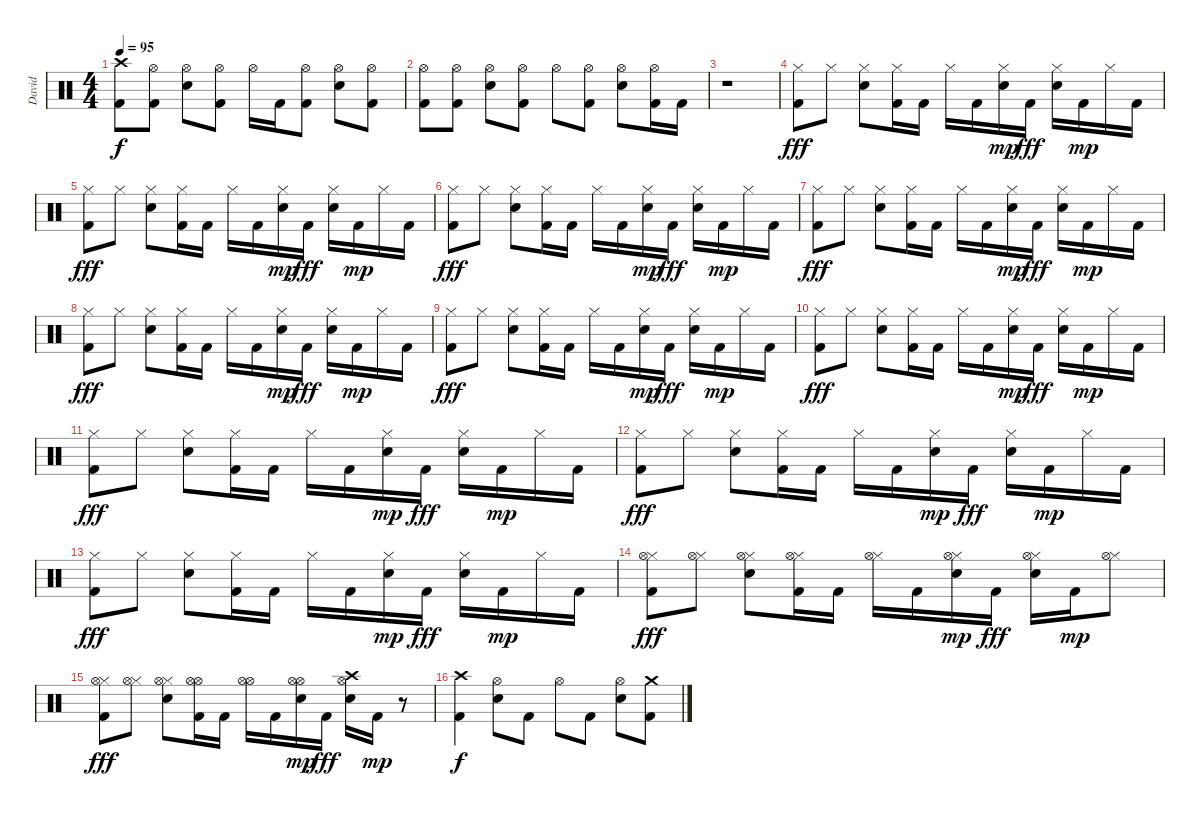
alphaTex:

\track ("David" "David") {instrument percussion}
\staff {score}
\articulation defaults
\ts (4 4)
\tempo 95
\clef neutral
\ks c
("Crash high (hit)" "Kick (hit) 2").8{dy f} ("Hi-Hat (open)" "Kick (hit) 2").8 ("Hi-Hat (open)" "Electric Snare (hit)").8 ("Hi-Hat (open)" "Kick (hit) 2").8 "Hi-Hat (open)".16 "Kick (hit) 2".16 ("Hi-Hat (open)" "Kick (hit) 2").8 ("Hi-Hat (open)" "Electric Snare (hit)").8 ("Hi-Hat (open)" "Kick (hit) 2").8 |
("Hi-Hat (open)" "Kick (hit) 2").8 ("Hi-Hat (open)" "Kick (hit) 2").8 ("Hi-Hat (open)" "Electric Snare (hit)").8 ("Hi-Hat (open)" "Kick (hit) 2").8 "Hi-Hat (open)".8 ("Hi-Hat (open)" "Kick (hit) 2").8 ("Hi-Hat (open)" "Electric Snare (hit)").8 ("Hi-Hat (open)" "Kick (hit) 2").16 "Kick (hit) 2".16 |
r.1 |
("Hi-Hat (closed)" "Kick (hit) 2").8{dy fff} "Hi-Hat (closed)".8 ("Hi-Hat (closed)" "Snare (hit) 2").8 ("Hi-Hat (closed)" "Kick (hit) 2").16 "Kick (hit) 2".16 "Hi-Hat (closed)".16 "Kick (hit) 2".16 ("Hi-Hat (closed)" "Snare (hit) 2").16{dy mp} "Kick (hit) 2".16{dy fff} ("Hi-Hat (closed)" "Snare (hit) 2").16 "Kick (hit) 2".16{dy mp} "Hi-Hat (closed)".16 "Kick (hit) 2".16 |
("Hi-Hat (closed)" "Kick (hit) 2").8{dy fff} "Hi-Hat (closed)".8 ("Hi-Hat (closed)" "Snare (hit) 2").8 ("Hi-Hat (closed)" "Kick (hit) 2").16 "Kick (hit) 2".16 "Hi-Hat (closed)".16 "Kick (hit) 2".16 ("Hi-Hat (closed)" "Snare (hit) 2").16{dy mp} "Kick (hit) 2".16{dy fff} ("Hi-Hat (closed)" "Snare (hit) 2").16 "Kick (hit) 2".16{dy mp} "Hi-Hat (closed)".16 "Kick (hit) 2".16 |
("Hi-Hat (closed)" "Kick (hit) 2").8{dy fff} "Hi-Hat (closed)".8 ("Hi-Hat (closed)" "Snare (hit) 2").8 ("Hi-Hat (closed)" "Kick (hit) 2").16 "Kick (hit) 2".16 "Hi-Hat (closed)".16 "Kick (hit) 2".16 ("Hi-Hat (closed)" "Snare (hit) 2").16{dy mp} "Kick (hit) 2".16{dy fff} ("Hi-Hat (closed)" "Snare (hit) 2").16 "Kick (hit) 2".16{dy mp} "Hi-Hat (closed)".16 "Kick (hit) 2".16 |
("Hi-Hat (closed)" "Kick (hit) 2").8{dy fff} "Hi-Hat (closed)".8 ("Hi-Hat (closed)" "Snare (hit) 2").8 ("Hi-Hat (closed)" "Kick (hit) 2").16 "Kick (hit) 2".16 "Hi-Hat (closed)".16 "Kick (hit) 2".16 ("Hi-Hat (closed)" "Snare (hit) 2").16{dy mp} "Kick (hit) 2".16{dy fff} ("Hi-Hat (closed)" "Snare (hit) 2").16 "Kick (hit) 2".16{dy mp} "Hi-Hat (closed)".16 "Kick (hit) 2".16 |
("Hi-Hat (closed)" "Kick (hit) 2").8{dy fff} "Hi-Hat (closed)".8 ("Hi-Hat (closed)" "Snare (hit) 2").8 ("Hi-Hat (closed)" "Kick (hit) 2").16 "Kick (hit) 2".16 "Hi-Hat (closed)".16 "Kick (hit) 2".16 ("Hi-Hat (closed)" "Snare (hit) 2").16{dy mp} "Kick (hit) 2".16{dy fff} ("Hi-Hat (closed)" "Snare (hit) 2").16 "Kick (hit) 2".16{dy mp} "Hi-Hat (closed)".16 "Kick (hit) 2".16 |
("Hi-Hat (closed)" "Kick (hit) 2").8{dy fff} "Hi-Hat (closed)".8 ("Hi-Hat (closed)" "Snare (hit) 2").8 ("Hi-Hat (closed)" "Kick (hit) 2").16 "Kick (hit) 2".16 "Hi-Hat (closed)".16 "Kick (hit) 2".16 ("Hi-Hat (closed)" "Snare (hit) 2").16{dy mp} "Kick (hit) 2".16{dy fff} ("Hi-Hat (closed)" "Snare (hit) 2").16 "Kick (hit) 2".16{dy mp} "Hi-Hat (closed)".16 "Kick (hit) 2".16 |
("Hi-Hat (closed)" "Kick (hit) 2").8{dy fff} "Hi-Hat (closed)".8 ("Hi-Hat (closed)" "Snare (hit) 2").8 ("Hi-Hat (closed)" "Kick (hit) 2").16 "Kick (hit) 2".16 "Hi-Hat (closed)".16 "Kick (hit) 2".16 ("Hi-Hat (closed)" "Snare (hit) 2").16{dy mp} "Kick (hit) 2".16{dy fff} ("Hi-Hat (closed)" "Snare (hit) 2").16 "Kick (hit) 2".16{dy mp} "Hi-Hat (closed)".16 "Kick (hit) 2".16 |
("Hi-Hat (closed)" "Kick (hit) 2").8{dy fff} "Hi-Hat (closed)".8 ("Hi-Hat (closed)" "Snare (hit) 2").8 ("Hi-Hat (closed)" "Kick (hit) 2").16 "Kick (hit) 2".16 "Hi-Hat (closed)".16 "Kick (hit) 2".16 ("Hi-Hat (closed)" "Snare (hit) 2").16{dy mp} "Kick (hit) 2".16{dy fff} ("Hi-Hat (closed)" "Snare (hit) 2").16 "Kick (hit) 2".16{dy mp} "Hi-Hat (closed)".16 "Kick (hit) 2".16 |
("Hi-Hat (closed)" "Kick (hit) 2").8{dy fff} "Hi-Hat (closed)".8 ("Hi-Hat (closed)" "Snare (hit) 2").8 ("Hi-Hat (closed)" "Kick (hit) 2").16 "Kick (hit) 2".16 "Hi-Hat (closed)".16 "Kick (hit) 2".16 ("Hi-Hat (closed)" "Snare (hit) 2").16{dy mp} "Kick (hit) 2".16{dy fff} ("Hi-Hat (closed)" "Snare (hit) 2").16 "Kick (hit) 2".16{dy mp} "Hi-Hat (closed)".16 "Kick (hit) 2".16 |
("Hi-Hat (closed)" "Kick (hit) 2").8{dy fff} "Hi-Hat (closed)".8 ("Hi-Hat (closed)" "Snare (hit) 2").8 ("Hi-Hat (closed)" "Kick (hit) 2").16 "Kick (hit) 2".16 "Hi-Hat (closed)".16 "Kick (hit) 2".16 ("Hi-Hat (closed)" "Snare (hit) 2").16{dy mp} "Kick (hit) 2".16{dy fff} ("Hi-Hat (closed)" "Snare (hit) 2").16 "Kick (hit) 2".16{dy mp} "Hi-Hat (closed)".16 "Kick (hit) 2".16 |
("Hi-Hat (closed)" "Hi-Hat (open)" "Kick (hit) 2").8{dy fff} ("Hi-Hat (closed)" "Hi-Hat (open)").8 ("Hi-Hat (closed)" "Hi-Hat (open)" "Snare (hit) 2").8 ("Hi-Hat (closed)" "Hi-Hat (open)" "Kick (hit) 2").16 "Kick (hit) 2".16 ("Hi-Hat (closed)" "Hi-Hat (open)").16 "Kick (hit) 2".16 ("Hi-Hat (closed)" "Hi-Hat (open)" "Snare (hit) 2").16{dy mp} "Kick (hit) 2".16{dy fff} ("Hi-Hat (closed)" "Hi-Hat (open)" "Snare (hit) 2").16 "Kick (hit) 2".16{dy mp} ("Hi-Hat (closed)" "Hi-Hat (open)").8 |
("Hi-Hat (closed)" "Hi-Hat (open)" "Kick (hit) 2").8{dy fff} ("Hi-Hat (closed)" "Hi-Hat (open)").8 ("Hi-Hat (closed)" "Hi-Hat (open)" "Snare (hit) 2").8 ("Hi-Hat (open)" "Hi-Hat (open)" "Kick (hit) 2").16 "Kick (hit) 2".16 ("Hi-Hat (open)" "Hi-Hat (open)").16 "Kick (hit) 2".16 ("Hi-Hat (open)" "Hi-Hat (open)" "Snare (hit) 2").16{dy mp} "Kick (hit) 2".16{dy fff} ("Crash high (hit)" "Hi-Hat (open)" "Snare (hit) 2").16 "Kick (hit) 2".16{dy mp} r.8 |
("Crash high (hit)" "Kick (hit) 2").4{dy f} ("Hi-Hat (open)" "Electric Snare (hit)").8 "Kick (hit) 2".8 "Hi-Hat (open)".8 "Kick (hit) 2".8 ("Hi-Hat (open)" "Electric Snare (hit)").8 ("Crash medium (hit)" "Kick (hit) 2").8
